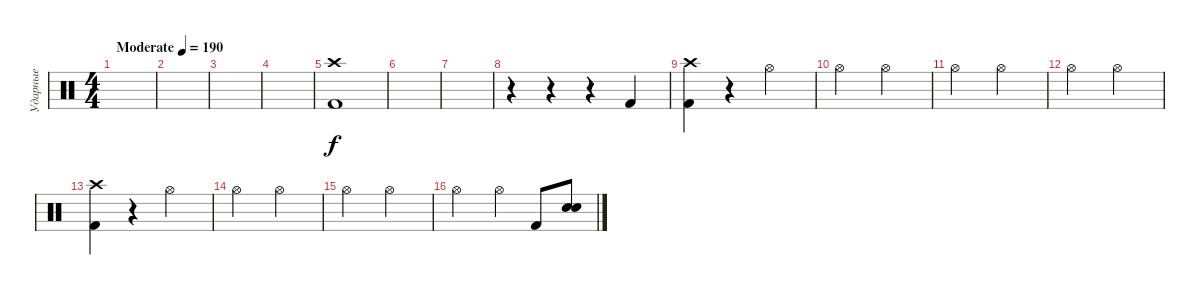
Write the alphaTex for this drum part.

\track ("Ударные" "Ударные") {instrument percussion}
\staff {score}
\articulation defaults
\ts (4 4)
\tempo (190 "Moderate")
\clef neutral
\ks c
|
|
|
|
("Crash high (hit)" "Kick (hit) 2").1 |
|
|
r.4 r.4 r.4 "Kick (hit) 2".4 |
("Crash high (hit)" "Kick (hit) 2").4 r.4 "Hi-Hat (open)".2 |
"Hi-Hat (open)".2 "Hi-Hat (open)".2 |
"Hi-Hat (open)".2 "Hi-Hat (open)".2 |
"Hi-Hat (open)".2 "Hi-Hat (open)".2 |
("Crash high (hit)" "Kick (hit) 2").4 r.4 "Hi-Hat (open)".2 |
"Hi-Hat (open)".2 "Hi-Hat (open)".2 |
"Hi-Hat (open)".2 "Hi-Hat (open)".2 |
"Hi-Hat (open)".2 "Hi-Hat (open)".4 "Kick (hit) 2".8 ("Electric Snare (hit)" "Snare (hit) 2").8
